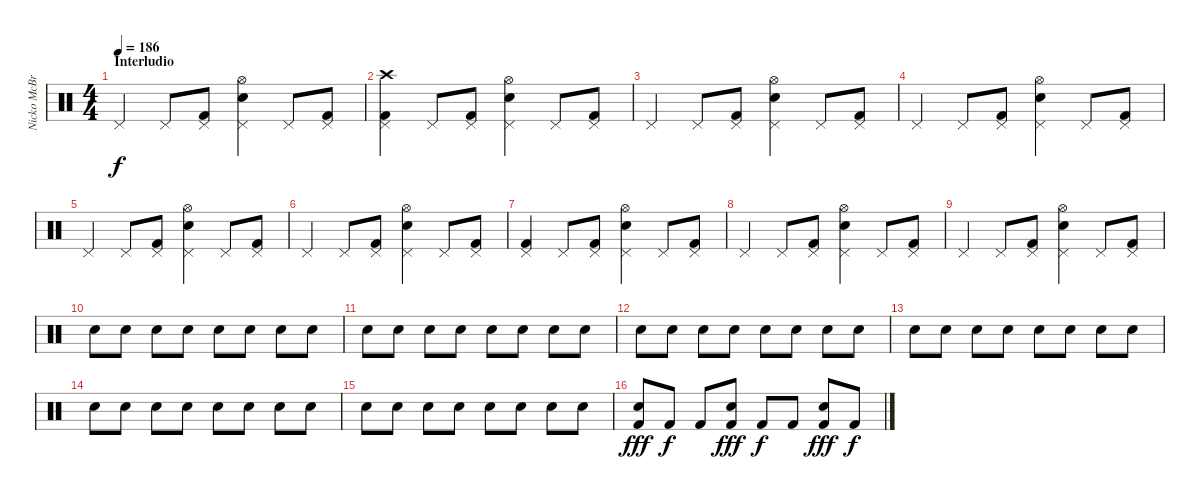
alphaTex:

\track ("Nicko McBrain" "Nicko McBr") {instrument percussion}
\staff {score}
\articulation defaults
\ts (4 4)
\section ("" "Interludio")
\tempo 186
\clef neutral
\ks c "Pedal Hi-Hat (hit)".4{dy f} "Pedal Hi-Hat (hit)".8
("Kick (hit) 2" "Pedal Hi-Hat (hit)").8 ("Snare (hit) 2" "Pedal Hi-Hat (hit)" "Hi-Hat (open)").4 "Pedal Hi-Hat (hit)".8 ("Kick (hit) 2" "Pedal Hi-Hat (hit)").8 |
("Kick (hit) 2" "Pedal Hi-Hat (hit)" "Crash high (hit)").4 "Pedal Hi-Hat (hit)".8 ("Kick (hit) 2" "Pedal Hi-Hat (hit)").8 ("Snare (hit) 2" "Pedal Hi-Hat (hit)" "Hi-Hat (open)").4 "Pedal Hi-Hat (hit)".8 ("Kick (hit) 2" "Pedal Hi-Hat (hit)").8 |
"Pedal Hi-Hat (hit)".4 "Pedal Hi-Hat (hit)".8 ("Kick (hit) 2" "Pedal Hi-Hat (hit)").8 ("Snare (hit) 2" "Pedal Hi-Hat (hit)" "Hi-Hat (open)").4 "Pedal Hi-Hat (hit)".8 ("Kick (hit) 2" "Pedal Hi-Hat (hit)").8 |
"Pedal Hi-Hat (hit)".4 "Pedal Hi-Hat (hit)".8 ("Kick (hit) 2" "Pedal Hi-Hat (hit)").8 ("Snare (hit) 2" "Pedal Hi-Hat (hit)" "Hi-Hat (open)").4 "Pedal Hi-Hat (hit)".8 ("Kick (hit) 2" "Pedal Hi-Hat (hit)").8 |
"Pedal Hi-Hat (hit)".4 "Pedal Hi-Hat (hit)".8 ("Kick (hit) 2" "Pedal Hi-Hat (hit)").8 ("Snare (hit) 2" "Pedal Hi-Hat (hit)" "Hi-Hat (open)").4 "Pedal Hi-Hat (hit)".8 ("Kick (hit) 2" "Pedal Hi-Hat (hit)").8 |
"Pedal Hi-Hat (hit)".4 "Pedal Hi-Hat (hit)".8 ("Kick (hit) 2" "Pedal Hi-Hat (hit)").8 ("Snare (hit) 2" "Pedal Hi-Hat (hit)" "Hi-Hat (open)").4 "Pedal Hi-Hat (hit)".8 ("Kick (hit) 2" "Pedal Hi-Hat (hit)").8 |
("Kick (hit) 2" "Pedal Hi-Hat (hit)").4 "Pedal Hi-Hat (hit)".8 ("Kick (hit) 2" "Pedal Hi-Hat (hit)").8 ("Snare (hit) 2" "Pedal Hi-Hat (hit)" "Hi-Hat (open)").4 "Pedal Hi-Hat (hit)".8 ("Kick (hit) 2" "Pedal Hi-Hat (hit)").8 |
"Pedal Hi-Hat (hit)".4 "Pedal Hi-Hat (hit)".8 ("Kick (hit) 2" "Pedal Hi-Hat (hit)").8 ("Snare (hit) 2" "Pedal Hi-Hat (hit)" "Hi-Hat (open)").4 "Pedal Hi-Hat (hit)".8 ("Kick (hit) 2" "Pedal Hi-Hat (hit)").8 |
"Pedal Hi-Hat (hit)".4 "Pedal Hi-Hat (hit)".8 ("Kick (hit) 2" "Pedal Hi-Hat (hit)").8 ("Snare (hit) 2" "Pedal Hi-Hat (hit)" "Hi-Hat (open)").4 "Pedal Hi-Hat (hit)".8 ("Kick (hit) 2" "Pedal Hi-Hat (hit)").8 |
"Snare (hit) 2".8{volume 10} "Snare (hit) 2".8 "Snare (hit) 2".8 "Snare (hit) 2".8 "Snare (hit) 2".8 "Snare (hit) 2".8 "Snare (hit) 2".8 "Snare (hit) 2".8 |
"Snare (hit) 2".8 "Snare (hit) 2".8 "Snare (hit) 2".8 "Snare (hit) 2".8 "Snare (hit) 2".8 "Snare (hit) 2".8 "Snare (hit) 2".8 "Snare (hit) 2".8 |
"Snare (hit) 2".8 "Snare (hit) 2".8 "Snare (hit) 2".8 "Snare (hit) 2".8 "Snare (hit) 2".8 "Snare (hit) 2".8 "Snare (hit) 2".8 "Snare (hit) 2".8 |
"Snare (hit) 2".8 "Snare (hit) 2".8 "Snare (hit) 2".8 "Snare (hit) 2".8 "Snare (hit) 2".8 "Snare (hit) 2".8 "Snare (hit) 2".8 "Snare (hit) 2".8 |
"Snare (hit) 2".8{volume 14} "Snare (hit) 2".8 "Snare (hit) 2".8 "Snare (hit) 2".8 "Snare (hit) 2".8 "Snare (hit) 2".8 "Snare (hit) 2".8 "Snare (hit) 2".8 |
"Snare (hit) 2".8 "Snare (hit) 2".8 "Snare (hit) 2".8 "Snare (hit) 2".8 "Snare (hit) 2".8 "Snare (hit) 2".8 "Snare (hit) 2".8 "Snare (hit) 2".8 |
("Snare (hit) 2" "Kick (hit) 2").8{dy fff} "Kick (hit) 2".8{dy f} "Kick (hit) 2".8 ("Snare (hit) 2" "Kick (hit) 2").8{dy fff} "Kick (hit) 2".8{dy f} "Kick (hit) 2".8 ("Snare (hit) 2" "Kick (hit) 2").8{dy fff} "Kick (hit) 2".8{dy f}
